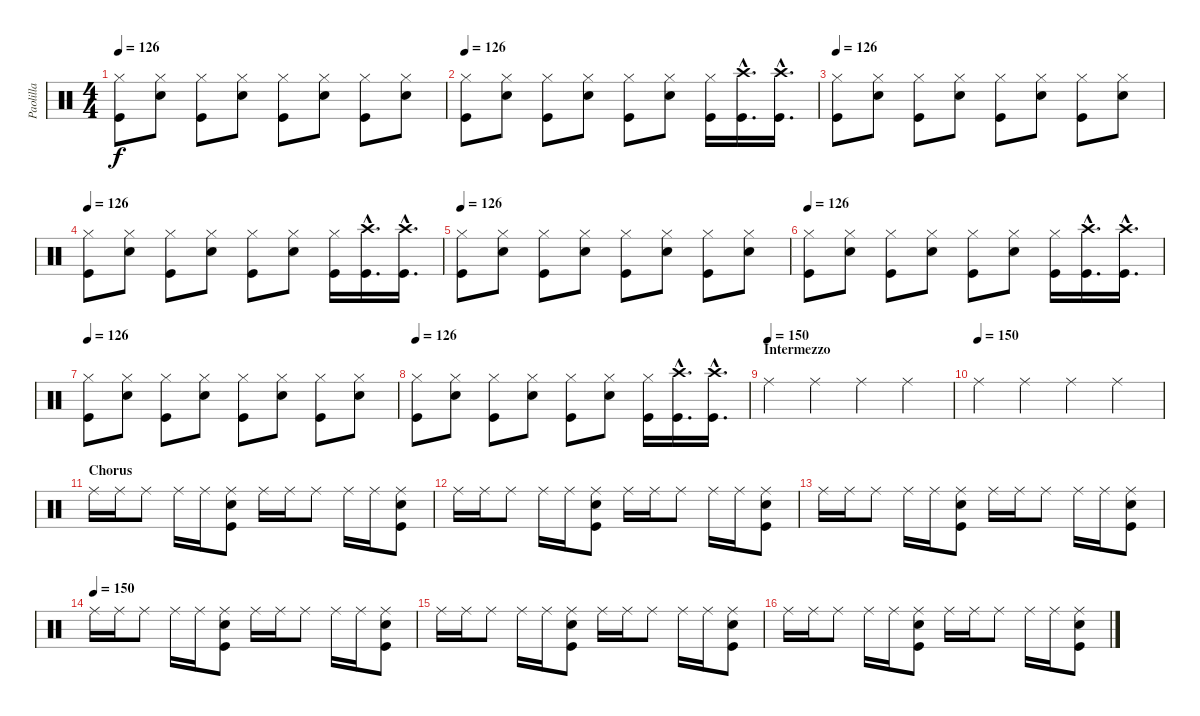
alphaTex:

\track ("Paolilla" "Paolilla") {instrument percussion}
\staff {score}
\articulation defaults
\ts (4 4)
\tempo 126
\clef neutral
\ks c
("Hi-Hat (closed)" "Kick (hit)").8{dy f} ("Hi-Hat (closed)" "Snare (hit) 2").8 ("Hi-Hat (closed)" "Kick (hit)").8 ("Hi-Hat (closed)" "Snare (hit) 2").8 ("Hi-Hat (closed)" "Kick (hit)").8 ("Hi-Hat (closed)" "Snare (hit) 2").8 ("Hi-Hat (closed)" "Kick (hit)").8 ("Hi-Hat (closed)" "Snare (hit) 2").8 |
\tempo 126
("Hi-Hat (closed)" "Kick (hit)").8 ("Hi-Hat (closed)" "Snare (hit) 2").8 ("Hi-Hat (closed)" "Kick (hit)").8 ("Hi-Hat (closed)" "Snare (hit) 2").8 ("Hi-Hat (closed)" "Kick (hit)").8 ("Hi-Hat (closed)" "Snare (hit) 2").8 ("Hi-Hat (closed)" "Kick (hit)").16 ("Crash high (hit)"{hac} "Kick (hit)"{hac}).16{d} ("Crash high (hit)"{hac} "Kick (hit)"{hac}).16{d} |
\tempo 126
("Hi-Hat (closed)" "Kick (hit)").8 ("Hi-Hat (closed)" "Snare (hit) 2").8 ("Hi-Hat (closed)" "Kick (hit)").8 ("Hi-Hat (closed)" "Snare (hit) 2").8 ("Hi-Hat (closed)" "Kick (hit)").8 ("Hi-Hat (closed)" "Snare (hit) 2").8 ("Hi-Hat (closed)" "Kick (hit)").8 ("Hi-Hat (closed)" "Snare (hit) 2").8 |
\tempo 126
("Hi-Hat (closed)" "Kick (hit)").8 ("Hi-Hat (closed)" "Snare (hit) 2").8 ("Hi-Hat (closed)" "Kick (hit)").8 ("Hi-Hat (closed)" "Snare (hit) 2").8 ("Hi-Hat (closed)" "Kick (hit)").8 ("Hi-Hat (closed)" "Snare (hit) 2").8 ("Hi-Hat (closed)" "Kick (hit)").16 ("Crash high (hit)"{hac} "Kick (hit)"{hac}).16{d} ("Crash high (hit)"{hac} "Kick (hit)"{hac}).16{d} |
\tempo 126
("Hi-Hat (closed)" "Kick (hit)").8 ("Hi-Hat (closed)" "Snare (hit) 2").8 ("Hi-Hat (closed)" "Kick (hit)").8 ("Hi-Hat (closed)" "Snare (hit) 2").8 ("Hi-Hat (closed)" "Kick (hit)").8 ("Hi-Hat (closed)" "Snare (hit) 2").8 ("Hi-Hat (closed)" "Kick (hit)").8 ("Hi-Hat (closed)" "Snare (hit) 2").8 |
\tempo 126
("Hi-Hat (closed)" "Kick (hit)").8 ("Hi-Hat (closed)" "Snare (hit) 2").8 ("Hi-Hat (closed)" "Kick (hit)").8 ("Hi-Hat (closed)" "Snare (hit) 2").8 ("Hi-Hat (closed)" "Kick (hit)").8 ("Hi-Hat (closed)" "Snare (hit) 2").8 ("Hi-Hat (closed)" "Kick (hit)").16 ("Crash high (hit)"{hac} "Kick (hit)"{hac}).16{d} ("Crash high (hit)"{hac} "Kick (hit)"{hac}).16{d} |
\tempo 126
("Hi-Hat (closed)" "Kick (hit)").8 ("Hi-Hat (closed)" "Snare (hit) 2").8 ("Hi-Hat (closed)" "Kick (hit)").8 ("Hi-Hat (closed)" "Snare (hit) 2").8 ("Hi-Hat (closed)" "Kick (hit)").8 ("Hi-Hat (closed)" "Snare (hit) 2").8 ("Hi-Hat (closed)" "Kick (hit)").8 ("Hi-Hat (closed)" "Snare (hit) 2").8 |
\tempo 126
("Hi-Hat (closed)" "Kick (hit)").8 ("Hi-Hat (closed)" "Snare (hit) 2").8 ("Hi-Hat (closed)" "Kick (hit)").8 ("Hi-Hat (closed)" "Snare (hit) 2").8 ("Hi-Hat (closed)" "Kick (hit)").8 ("Hi-Hat (closed)" "Snare (hit) 2").8 ("Hi-Hat (closed)" "Kick (hit)").16 ("Crash high (hit)"{hac} "Kick (hit)"{hac}).16{d} ("Crash high (hit)"{hac} "Kick (hit)"{hac}).16{d} |
\section ("" "Intermezzo")
\tempo (150)
"Ride (middle)".4 "Ride (middle)".4 "Ride (middle)".4 "Ride (middle)".4 |
\tempo (150)
"Ride (middle)".4 "Ride (middle)".4 "Ride (middle)".4 "Ride (middle)".4 |
\section ("" "Chorus")
"Ride (middle)".16 "Ride (middle)".16 "Ride (middle)".8 "Ride (middle)".16 "Ride (middle)".16 ("Ride (middle)" "Snare (hit) 2" "Kick (hit)").8 "Ride (middle)".16 "Ride (middle)".16 "Ride (middle)".8 "Ride (middle)".16 "Ride (middle)".16 ("Ride (middle)" "Snare (hit) 2" "Kick (hit)").8 |
"Ride (middle)".16 "Ride (middle)".16 "Ride (middle)".8 "Ride (middle)".16 "Ride (middle)".16 ("Ride (middle)" "Snare (hit) 2" "Kick (hit)").8 "Ride (middle)".16 "Ride (middle)".16 "Ride (middle)".8 "Ride (middle)".16 "Ride (middle)".16 ("Ride (middle)" "Snare (hit) 2" "Kick (hit)").8 |
"Ride (middle)".16 "Ride (middle)".16 "Ride (middle)".8 "Ride (middle)".16 "Ride (middle)".16 ("Ride (middle)" "Snare (hit) 2" "Kick (hit)").8 "Ride (middle)".16 "Ride (middle)".16 "Ride (middle)".8 "Ride (middle)".16 "Ride (middle)".16 ("Ride (middle)" "Snare (hit) 2" "Kick (hit)").8 |
\tempo (150)
"Ride (middle)".16 "Ride (middle)".16 "Ride (middle)".8 "Ride (middle)".16 "Ride (middle)".16 ("Ride (middle)" "Snare (hit) 2" "Kick (hit)").8 "Ride (middle)".16 "Ride (middle)".16 "Ride (middle)".8 "Ride (middle)".16 "Ride (middle)".16 ("Ride (middle)" "Snare (hit) 2" "Kick (hit)").8 |
"Ride (middle)".16 "Ride (middle)".16 "Ride (middle)".8 "Ride (middle)".16 "Ride (middle)".16 ("Ride (middle)" "Snare (hit) 2" "Kick (hit)").8 "Ride (middle)".16 "Ride (middle)".16 "Ride (middle)".8 "Ride (middle)".16 "Ride (middle)".16 ("Ride (middle)" "Snare (hit) 2" "Kick (hit)").8 |
"Ride (middle)".16 "Ride (middle)".16 "Ride (middle)".8 "Ride (middle)".16 "Ride (middle)".16 ("Ride (middle)" "Snare (hit) 2" "Kick (hit)").8 "Ride (middle)".16 "Ride (middle)".16 "Ride (middle)".8 "Ride (middle)".16 "Ride (middle)".16 ("Ride (middle)" "Snare (hit) 2" "Kick (hit)").8
